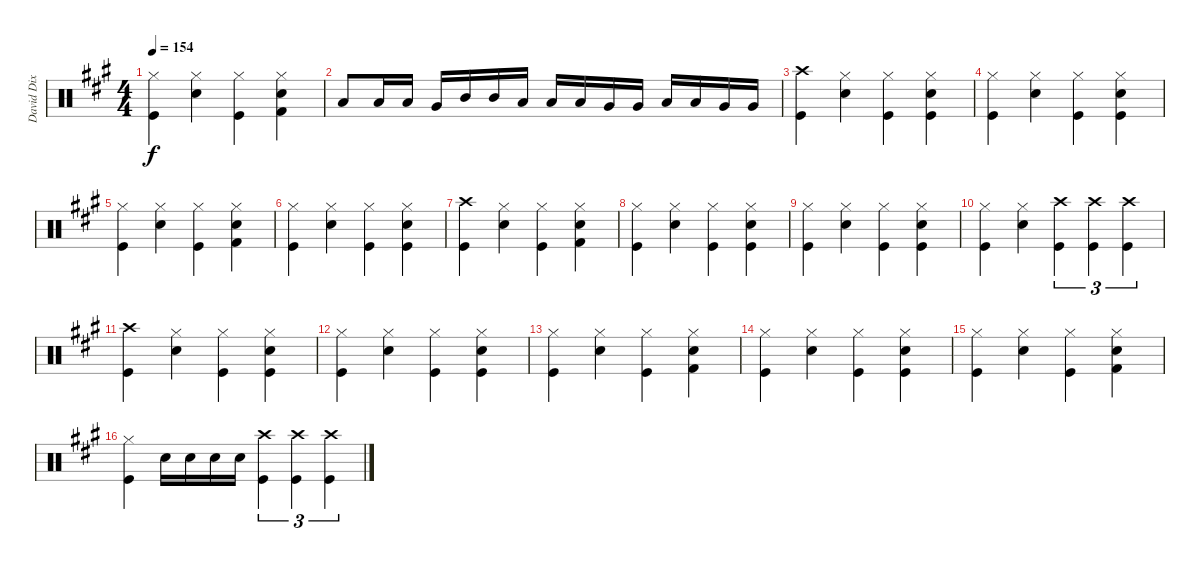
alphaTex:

\track ("David Dix Drums" "David Dix ") {instrument percussion}
\staff {score}
\articulation defaults
\ts (4 4)
\tempo 154
\clef neutral
\ks f#minor
("Hi-Hat (closed)" "Kick (hit)").4{dy f} ("Hi-Hat (closed)" "Snare (hit) 2").4 ("Hi-Hat (closed)" "Kick (hit)").4 ("Hi-Hat (closed)" "Snare (hit) 2" "Kick (hit) 2").4 |
"Low Tom (hit)".8 "Low Tom (hit)".16 "Low Tom (hit)".16 "Very Low Tom (hit)".16 "Mid Tom (hit)".16 "Mid Tom (hit)".16 "Low Tom (hit)".16 "Low Tom (hit)".16 "Low Tom (hit)".16 "Very Low Tom (hit)".16 "Very Low Tom (hit)".16 "Low Tom (hit)".16 "Low Tom (hit)".16 "Very Low Tom (hit)".16 "Very Low Tom (hit)".16 |
("Crash high (hit)" "Kick (hit)").4 ("Hi-Hat (closed)" "Snare (hit) 2").4 ("Hi-Hat (closed)" "Kick (hit)").4 ("Hi-Hat (closed)" "Snare (hit) 2" "Kick (hit)").4 |
("Hi-Hat (closed)" "Kick (hit)").4 ("Hi-Hat (closed)" "Snare (hit) 2").4 ("Hi-Hat (closed)" "Kick (hit)").4 ("Hi-Hat (closed)" "Snare (hit) 2" "Kick (hit)").4 |
("Hi-Hat (closed)" "Kick (hit)").4 ("Hi-Hat (closed)" "Snare (hit) 2").4 ("Hi-Hat (closed)" "Kick (hit)").4 ("Hi-Hat (closed)" "Snare (hit) 2" "Kick (hit) 2").4 |
("Hi-Hat (closed)" "Kick (hit)").4 ("Hi-Hat (closed)" "Snare (hit) 2").4 ("Hi-Hat (closed)" "Kick (hit)").4 ("Hi-Hat (closed)" "Snare (hit) 2" "Kick (hit)").4 |
("Crash high (hit)" "Kick (hit)").4 ("Hi-Hat (closed)" "Snare (hit) 2").4 ("Hi-Hat (closed)" "Kick (hit)").4 ("Hi-Hat (closed)" "Snare (hit) 2" "Kick (hit) 2").4 |
("Hi-Hat (closed)" "Kick (hit)").4 ("Hi-Hat (closed)" "Snare (hit) 2").4 ("Hi-Hat (closed)" "Kick (hit)").4 ("Hi-Hat (closed)" "Snare (hit) 2" "Kick (hit)").4 |
("Hi-Hat (closed)" "Kick (hit)").4 ("Hi-Hat (closed)" "Snare (hit) 2").4 ("Hi-Hat (closed)" "Kick (hit)").4 ("Hi-Hat (closed)" "Snare (hit) 2" "Kick (hit)").4 |
("Hi-Hat (closed)" "Kick (hit)").4 ("Hi-Hat (closed)" "Snare (hit) 2").4 ("Crash high (hit)" "Kick (hit)").4{tu (3 2)} ("Crash high (hit)" "Kick (hit)").4{tu (3 2)} ("Crash high (hit)" "Kick (hit)").4{tu (3 2)} |
("Crash high (hit)" "Kick (hit)").4 ("Hi-Hat (closed)" "Snare (hit) 2").4 ("Hi-Hat (closed)" "Kick (hit)").4 ("Hi-Hat (closed)" "Snare (hit) 2" "Kick (hit)").4 |
("Hi-Hat (closed)" "Kick (hit)").4 ("Hi-Hat (closed)" "Snare (hit) 2").4 ("Hi-Hat (closed)" "Kick (hit)").4 ("Hi-Hat (closed)" "Snare (hit) 2" "Kick (hit)").4 |
("Hi-Hat (closed)" "Kick (hit)").4 ("Hi-Hat (closed)" "Snare (hit) 2").4 ("Hi-Hat (closed)" "Kick (hit)").4 ("Hi-Hat (closed)" "Snare (hit) 2" "Kick (hit) 2").4 |
("Hi-Hat (closed)" "Kick (hit)").4 ("Hi-Hat (closed)" "Snare (hit) 2").4 ("Hi-Hat (closed)" "Kick (hit)").4 ("Hi-Hat (closed)" "Snare (hit) 2" "Kick (hit)").4 |
("Hi-Hat (closed)" "Kick (hit)").4 ("Hi-Hat (closed)" "Snare (hit) 2").4 ("Hi-Hat (closed)" "Kick (hit)").4 ("Hi-Hat (closed)" "Snare (hit) 2" "Kick (hit) 2").4 |
("Hi-Hat (closed)" "Kick (hit)").4 "Snare (hit) 2".16 "Snare (hit) 2".16 "Snare (hit) 2".16 "Snare (hit) 2".16 ("Crash high (hit)" "Kick (hit)").4{tu (3 2)} ("Crash high (hit)" "Kick (hit)").4{tu (3 2)} ("Crash high (hit)" "Kick (hit)").4{tu (3 2)}
